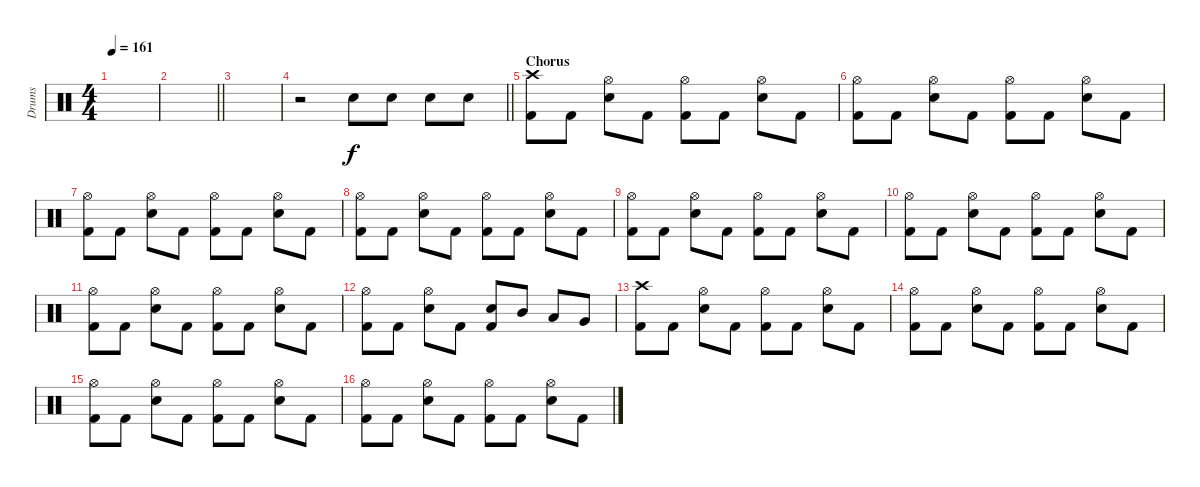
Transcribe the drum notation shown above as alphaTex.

\track ("Drums" "Drums") {instrument percussion}
\staff {score}
\articulation defaults
\ts (4 4)
\tempo 161
\clef neutral
\ks c
|
\barLineRight lightlight
|
|
\barLineRight lightlight
r.2 "Snare (hit) 2".8 "Snare (hit) 2".8 "Snare (hit) 2".8 "Snare (hit) 2".8 |
\section ("" "Chorus")
("Crash high (hit)" "Kick (hit) 2").8 "Kick (hit) 2".8 ("Hi-Hat (open)" "Snare (hit) 2").8 "Kick (hit) 2".8 ("Hi-Hat (open)" "Kick (hit) 2").8 "Kick (hit) 2".8 ("Hi-Hat (open)" "Snare (hit) 2").8 "Kick (hit) 2".8 |
("Hi-Hat (open)" "Kick (hit) 2").8 "Kick (hit) 2".8 ("Hi-Hat (open)" "Snare (hit) 2").8 "Kick (hit) 2".8 ("Hi-Hat (open)" "Kick (hit) 2").8 "Kick (hit) 2".8 ("Hi-Hat (open)" "Snare (hit) 2").8 "Kick (hit) 2".8 |
("Hi-Hat (open)" "Kick (hit) 2").8 "Kick (hit) 2".8 ("Hi-Hat (open)" "Snare (hit) 2").8 "Kick (hit) 2".8 ("Hi-Hat (open)" "Kick (hit) 2").8 "Kick (hit) 2".8 ("Hi-Hat (open)" "Snare (hit) 2").8 "Kick (hit) 2".8 |
("Hi-Hat (open)" "Kick (hit) 2").8 "Kick (hit) 2".8 ("Hi-Hat (open)" "Snare (hit) 2").8 "Kick (hit) 2".8 ("Hi-Hat (open)" "Kick (hit) 2").8 "Kick (hit) 2".8 ("Hi-Hat (open)" "Snare (hit) 2").8 "Kick (hit) 2".8 |
("Hi-Hat (open)" "Kick (hit) 2").8 "Kick (hit) 2".8 ("Hi-Hat (open)" "Snare (hit) 2").8 "Kick (hit) 2".8 ("Hi-Hat (open)" "Kick (hit) 2").8 "Kick (hit) 2".8 ("Hi-Hat (open)" "Snare (hit) 2").8 "Kick (hit) 2".8 |
("Hi-Hat (open)" "Kick (hit) 2").8 "Kick (hit) 2".8 ("Hi-Hat (open)" "Snare (hit) 2").8 "Kick (hit) 2".8 ("Hi-Hat (open)" "Kick (hit) 2").8 "Kick (hit) 2".8 ("Hi-Hat (open)" "Snare (hit) 2").8 "Kick (hit) 2".8 |
("Hi-Hat (open)" "Kick (hit) 2").8 "Kick (hit) 2".8 ("Hi-Hat (open)" "Snare (hit) 2").8 "Kick (hit) 2".8 ("Hi-Hat (open)" "Kick (hit) 2").8 "Kick (hit) 2".8 ("Hi-Hat (open)" "Snare (hit) 2").8 "Kick (hit) 2".8 |
("Hi-Hat (open)" "Kick (hit) 2").8 "Kick (hit) 2".8 ("Hi-Hat (open)" "Snare (hit) 2").8 "Kick (hit) 2".8 ("Snare (hit) 2" "Kick (hit) 2").8 "Mid Tom (hit)".8 "Low Tom (hit)".8 "Very Low Tom (hit)".8 |
("Crash high (hit)" "Kick (hit) 2").8 "Kick (hit) 2".8 ("Hi-Hat (open)" "Snare (hit) 2").8 "Kick (hit) 2".8 ("Hi-Hat (open)" "Kick (hit) 2").8 "Kick (hit) 2".8 ("Hi-Hat (open)" "Snare (hit) 2").8 "Kick (hit) 2".8 |
("Hi-Hat (open)" "Kick (hit) 2").8 "Kick (hit) 2".8 ("Hi-Hat (open)" "Snare (hit) 2").8 "Kick (hit) 2".8 ("Hi-Hat (open)" "Kick (hit) 2").8 "Kick (hit) 2".8 ("Hi-Hat (open)" "Snare (hit) 2").8 "Kick (hit) 2".8 |
("Hi-Hat (open)" "Kick (hit) 2").8 "Kick (hit) 2".8 ("Hi-Hat (open)" "Snare (hit) 2").8 "Kick (hit) 2".8 ("Hi-Hat (open)" "Kick (hit) 2").8 "Kick (hit) 2".8 ("Hi-Hat (open)" "Snare (hit) 2").8 "Kick (hit) 2".8 |
("Hi-Hat (open)" "Kick (hit) 2").8 "Kick (hit) 2".8 ("Hi-Hat (open)" "Snare (hit) 2").8 "Kick (hit) 2".8 ("Hi-Hat (open)" "Kick (hit) 2").8 "Kick (hit) 2".8 ("Hi-Hat (open)" "Snare (hit) 2").8 "Kick (hit) 2".8
